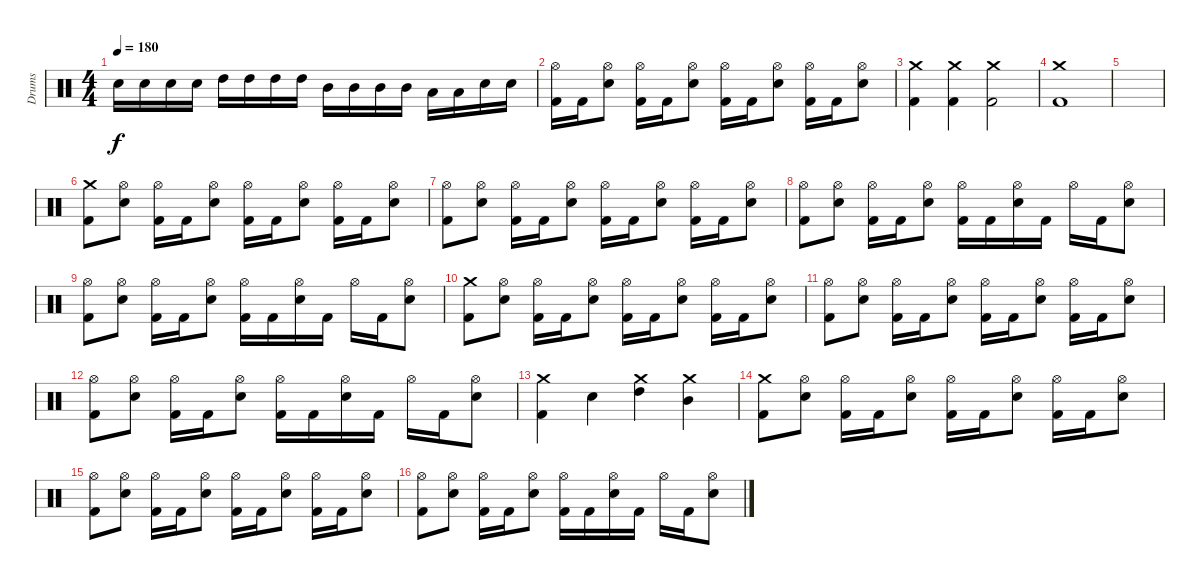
\track ("Drums" "Drums") {instrument percussion}
\staff {score}
\articulation defaults
\ts (4 4)
\tempo 180
\clef neutral
\ks c "Electric Snare (hit)".16{dy f} "Electric Snare (hit)".16 "Electric Snare (hit)".16 "Electric Snare (hit)".16 "High Tom (hit)".16 "High Tom (hit)".16 "High Tom (hit)".16 "High Tom (hit)".16 "Mid Tom (hit)".16 "Mid Tom (hit)".16 "Mid Tom (hit)".16 "Mid Tom (hit)".16 "Low Tom (hit)".16 "Low Tom (hit)".16 "Electric Snare (hit)".16 "Electric Snare (hit)".16
|
("Hi-Hat (open)" "Kick (hit) 2").16 "Kick (hit) 2".16 ("Hi-Hat (open)" "Electric Snare (hit)").8 ("Hi-Hat (open)" "Kick (hit) 2").16 "Kick (hit) 2".16 ("Hi-Hat (open)" "Electric Snare (hit)").8 ("Hi-Hat (open)" "Kick (hit) 2").16 "Kick (hit) 2".16 ("Hi-Hat (open)" "Electric Snare (hit)").8 ("Hi-Hat (open)" "Kick (hit) 2").16 "Kick (hit) 2".16 ("Hi-Hat (open)" "Electric Snare (hit)").8 |
("Crash medium (hit)" "Kick (hit) 2").4 ("Crash medium (hit)" "Kick (hit) 2").4 ("Crash medium (hit)" "Kick (hit) 2").2 |
("Crash medium (hit)" "Kick (hit) 2").1 |
|
("Crash medium (hit)" "Kick (hit) 2").8 ("Hi-Hat (open)" "Electric Snare (hit)").8 ("Hi-Hat (open)" "Kick (hit) 2").16 "Kick (hit) 2".16 ("Hi-Hat (open)" "Electric Snare (hit)").8 ("Hi-Hat (open)" "Kick (hit) 2").16 "Kick (hit) 2".16 ("Hi-Hat (open)" "Electric Snare (hit)").8 ("Hi-Hat (open)" "Kick (hit) 2").16 "Kick (hit) 2".16 ("Hi-Hat (open)" "Electric Snare (hit)").8 |
("Hi-Hat (open)" "Kick (hit) 2").8 ("Hi-Hat (open)" "Electric Snare (hit)").8 ("Hi-Hat (open)" "Kick (hit) 2").16 "Kick (hit) 2".16 ("Hi-Hat (open)" "Electric Snare (hit)").8 ("Hi-Hat (open)" "Kick (hit) 2").16 "Kick (hit) 2".16 ("Hi-Hat (open)" "Electric Snare (hit)").8 ("Hi-Hat (open)" "Kick (hit) 2").16 "Kick (hit) 2".16 ("Hi-Hat (open)" "Electric Snare (hit)").8 |
("Hi-Hat (open)" "Kick (hit) 2").8 ("Hi-Hat (open)" "Electric Snare (hit)").8 ("Hi-Hat (open)" "Kick (hit) 2").16 "Kick (hit) 2".16 ("Hi-Hat (open)" "Electric Snare (hit)").8 ("Hi-Hat (open)" "Kick (hit) 2").16 "Kick (hit) 2".16 ("Hi-Hat (open)" "Electric Snare (hit)").16 "Kick (hit) 2".16 "Hi-Hat (open)".16 "Kick (hit) 2".16 ("Hi-Hat (open)" "Electric Snare (hit)").8 |
("Hi-Hat (open)" "Kick (hit) 2").8 ("Hi-Hat (open)" "Electric Snare (hit)").8 ("Hi-Hat (open)" "Kick (hit) 2").16 "Kick (hit) 2".16 ("Hi-Hat (open)" "Electric Snare (hit)").8 ("Hi-Hat (open)" "Kick (hit) 2").16 "Kick (hit) 2".16 ("Hi-Hat (open)" "Electric Snare (hit)").16 "Kick (hit) 2".16 "Hi-Hat (open)".16 "Kick (hit) 2".16 ("Hi-Hat (open)" "Electric Snare (hit)").8 |
("Crash medium (hit)" "Kick (hit) 2").8 ("Hi-Hat (open)" "Electric Snare (hit)").8 ("Hi-Hat (open)" "Kick (hit) 2").16 "Kick (hit) 2".16 ("Hi-Hat (open)" "Electric Snare (hit)").8 ("Hi-Hat (open)" "Kick (hit) 2").16 "Kick (hit) 2".16 ("Hi-Hat (open)" "Electric Snare (hit)").8 ("Hi-Hat (open)" "Kick (hit) 2").16 "Kick (hit) 2".16 ("Hi-Hat (open)" "Electric Snare (hit)").8 |
("Hi-Hat (open)" "Kick (hit) 2").8 ("Hi-Hat (open)" "Electric Snare (hit)").8 ("Hi-Hat (open)" "Kick (hit) 2").16 "Kick (hit) 2".16 ("Hi-Hat (open)" "Electric Snare (hit)").8 ("Hi-Hat (open)" "Kick (hit) 2").16 "Kick (hit) 2".16 ("Hi-Hat (open)" "Electric Snare (hit)").8 ("Hi-Hat (open)" "Kick (hit) 2").16 "Kick (hit) 2".16 ("Hi-Hat (open)" "Electric Snare (hit)").8 |
("Hi-Hat (open)" "Kick (hit) 2").8 ("Hi-Hat (open)" "Electric Snare (hit)").8 ("Hi-Hat (open)" "Kick (hit) 2").16 "Kick (hit) 2".16 ("Hi-Hat (open)" "Electric Snare (hit)").8 ("Hi-Hat (open)" "Kick (hit) 2").16 "Kick (hit) 2".16 ("Hi-Hat (open)" "Electric Snare (hit)").16 "Kick (hit) 2".16 "Hi-Hat (open)".16 "Kick (hit) 2".16 ("Hi-Hat (open)" "Electric Snare (hit)").8 |
("Crash medium (hit)" "Kick (hit) 2").4 "Electric Snare (hit)".4 ("Crash medium (hit)" "High Tom (hit)").4 ("Crash medium (hit)" "Mid Tom (hit)").4 |
("Crash medium (hit)" "Kick (hit) 2").8 ("Hi-Hat (open)" "Electric Snare (hit)").8 ("Hi-Hat (open)" "Kick (hit) 2").16 "Kick (hit) 2".16 ("Hi-Hat (open)" "Electric Snare (hit)").8 ("Hi-Hat (open)" "Kick (hit) 2").16 "Kick (hit) 2".16 ("Hi-Hat (open)" "Electric Snare (hit)").8 ("Hi-Hat (open)" "Kick (hit) 2").16 "Kick (hit) 2".16 ("Hi-Hat (open)" "Electric Snare (hit)").8 |
("Hi-Hat (open)" "Kick (hit) 2").8 ("Hi-Hat (open)" "Electric Snare (hit)").8 ("Hi-Hat (open)" "Kick (hit) 2").16 "Kick (hit) 2".16 ("Hi-Hat (open)" "Electric Snare (hit)").8 ("Hi-Hat (open)" "Kick (hit) 2").16 "Kick (hit) 2".16 ("Hi-Hat (open)" "Electric Snare (hit)").8 ("Hi-Hat (open)" "Kick (hit) 2").16 "Kick (hit) 2".16 ("Hi-Hat (open)" "Electric Snare (hit)").8 |
("Hi-Hat (open)" "Kick (hit) 2").8 ("Hi-Hat (open)" "Electric Snare (hit)").8 ("Hi-Hat (open)" "Kick (hit) 2").16 "Kick (hit) 2".16 ("Hi-Hat (open)" "Electric Snare (hit)").8 ("Hi-Hat (open)" "Kick (hit) 2").16 "Kick (hit) 2".16 ("Hi-Hat (open)" "Electric Snare (hit)").16 "Kick (hit) 2".16 "Hi-Hat (open)".16 "Kick (hit) 2".16 ("Hi-Hat (open)" "Electric Snare (hit)").8
